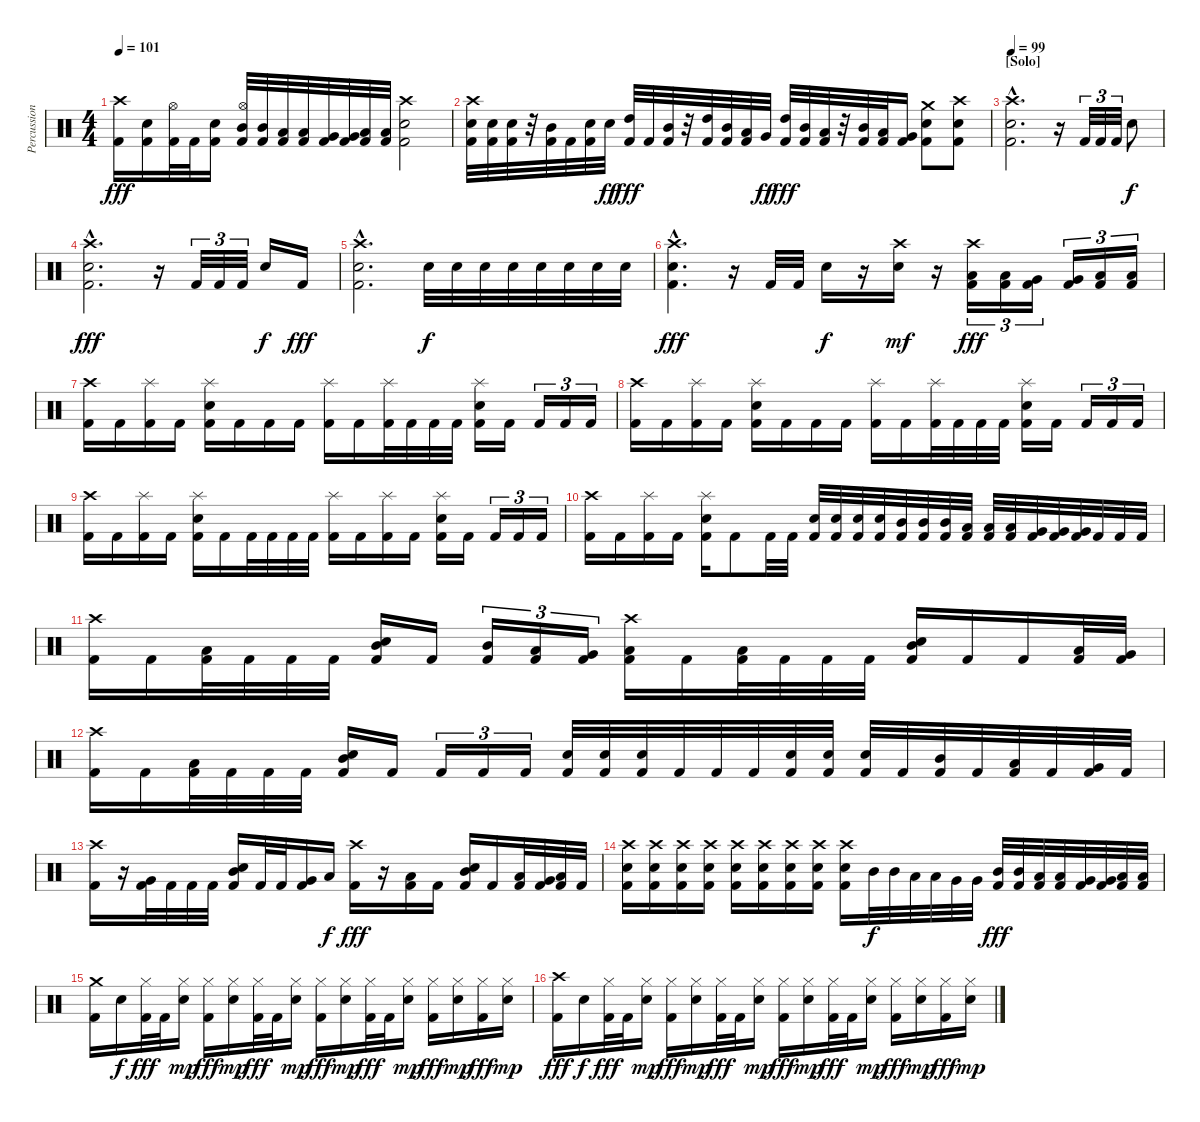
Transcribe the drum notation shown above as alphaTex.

\track ("Percussion" "Percussion") {instrument percussion}
\staff {score}
\articulation defaults
\ts (4 4)
\tempo 101
\clef neutral
\ks c
("Crash high (hit)" "Kick (hit) 2").16{dy fff} ("Snare (hit) 2" "Kick (hit) 2").16 ("Hi-Hat (open)" "Kick (hit) 2").32 "Kick (hit) 2".32 ("Snare (hit) 2" "Kick (hit) 2").16 ("Hi-Hat (open)" "Mid Tom (hit)" "Kick (hit) 2").32 ("Mid Tom (hit)" "Kick (hit) 2").32 ("Low Tom (hit)" "Kick (hit) 2").32 ("Low Tom (hit)" "Kick (hit) 2").32 ("Very Low Tom (hit)" "Kick (hit) 2").32 ("Very Low Tom (hit)" "Kick (hit) 2").32 ("Low Floor Tom (hit)" "Kick (hit) 2").32 ("Low Floor Tom (hit)" "Kick (hit) 2").32 ("Crash high (hit)" "Snare (hit) 2" "Kick (hit) 2").2 |
("Crash high (hit)" "Snare (hit) 2" "Kick (hit) 2").32 ("Snare (hit) 2" "Kick (hit) 2").32 ("Snare (hit) 2" "Kick (hit) 2").32 r.32 ("Mid Tom (hit)" "Kick (hit) 2").32 "Kick (hit) 2".32 ("Snare (hit) 2" "Kick (hit) 2").32 "Snare (hit) 2".32{dy ff} ("High Tom (hit)" "Kick (hit) 2").32{dy fff} "Kick (hit) 2".32 ("Mid Tom (hit)" "Kick (hit) 2").32 r.32 ("High Tom (hit)" "Kick (hit) 2").32 ("Mid Tom (hit)" "Kick (hit) 2").32 ("Low Tom (hit)" "Kick (hit) 2").32 "Very Low Tom (hit)".32{dy ff} ("High Tom (hit)" "Kick (hit) 2").32{dy fff} ("Mid Tom (hit)" "Kick (hit) 2").32 ("Low Tom (hit)" "Kick (hit) 2").32 r.32 ("Mid Tom (hit)" "Kick (hit) 2").32 ("Low Tom (hit)" "Kick (hit) 2").32 ("Very Low Tom (hit)" "Kick (hit) 2").16 ("Crash medium (hit)" "Snare (hit) 2" "Kick (hit) 2").8 ("Crash high (hit)" "Snare (hit) 2" "Kick (hit) 2").8 |
\section ("" "[Solo]")
\tempo 99
("Crash high (hit)"{hac} "Snare (hit) 2"{hac} "Kick (hit) 2"{hac}).2{d} r.16 "Kick (hit) 2".32{tu (3 2)} "Kick (hit) 2".32{tu (3 2)} "Kick (hit) 2".32{tu (3 2)} "Snare (hit) 2".8{dy f} |
("Crash high (hit)"{hac} "Snare (hit) 2"{hac} "Kick (hit) 2"{hac}).2{d dy fff} r.16 "Kick (hit) 2".32{tu (3 2)} "Kick (hit) 2".32{tu (3 2)} "Kick (hit) 2".32{tu (3 2)} "Snare (hit) 2".16{dy f} "Kick (hit) 2".16{dy fff} |
("Crash high (hit)"{hac} "Snare (hit) 2"{hac} "Kick (hit) 2"{hac}).2{d} "Snare (hit) 2".32{dy f} "Snare (hit) 2".32 "Snare (hit) 2".32 "Snare (hit) 2".32 "Snare (hit) 2".32 "Snare (hit) 2".32 "Snare (hit) 2".32 "Snare (hit) 2".32 |
("Crash high (hit)"{hac} "Snare (hit) 2"{hac} "Kick (hit) 2"{hac}).4{d dy fff} r.16 "Kick (hit) 2".32 "Kick (hit) 2".32 "Snare (hit) 2".16{dy f} r.16 ("Crash high (hit)" "Snare (hit) 2").16{dy mf} r.16 ("Crash high (hit)" "Low Tom (hit)" "Kick (hit) 2").16{tu (3 2) dy fff} ("Low Tom (hit)" "Kick (hit) 2").16{tu (3 2)} ("Very Low Tom (hit)" "Kick (hit) 2").16{tu (3 2)} ("Very Low Tom (hit)" "Kick (hit) 2").16{tu (3 2)} ("Low Floor Tom (hit)" "Kick (hit) 2").16{tu (3 2)} ("Low Floor Tom (hit)" "Kick (hit) 2").16{tu (3 2)} |
("Crash high (hit)" "Kick (hit) 2").16 "Kick (hit) 2".16 ("Splash (hit)" "Kick (hit) 2").16 "Kick (hit) 2".16 ("Splash (hit)" "Snare (hit) 2" "Kick (hit) 2").16 "Kick (hit) 2".16 "Kick (hit) 2".16 "Kick (hit) 2".16 ("Splash (hit)" "Kick (hit) 2").16 "Kick (hit) 2".16 ("Splash (hit)" "Kick (hit) 2").32 "Kick (hit) 2".32 "Kick (hit) 2".32 "Kick (hit) 2".32 ("Splash (hit)" "Snare (hit) 2" "Kick (hit) 2").16 "Kick (hit) 2".16 "Kick (hit) 2".16{tu (3 2)} "Kick (hit) 2".16{tu (3 2)} "Kick (hit) 2".16{tu (3 2)} |
("Crash high (hit)" "Kick (hit) 2").16 "Kick (hit) 2".16 ("Splash (hit)" "Kick (hit) 2").16 "Kick (hit) 2".16 ("Splash (hit)" "Snare (hit) 2" "Kick (hit) 2").16 "Kick (hit) 2".16 "Kick (hit) 2".16 "Kick (hit) 2".16 ("Splash (hit)" "Kick (hit) 2").16 "Kick (hit) 2".16 ("Splash (hit)" "Kick (hit) 2").32 "Kick (hit) 2".32 "Kick (hit) 2".32 "Kick (hit) 2".32 ("Splash (hit)" "Snare (hit) 2" "Kick (hit) 2").16 "Kick (hit) 2".16 "Kick (hit) 2".16{tu (3 2)} "Kick (hit) 2".16{tu (3 2)} "Kick (hit) 2".16{tu (3 2)} |
("Crash high (hit)" "Kick (hit) 2").16 "Kick (hit) 2".16 ("Splash (hit)" "Kick (hit) 2").16 "Kick (hit) 2".16 ("Splash (hit)" "Snare (hit) 2" "Kick (hit) 2").16 "Kick (hit) 2".16 "Kick (hit) 2".32 "Kick (hit) 2".32 "Kick (hit) 2".32 "Kick (hit) 2".32 ("Splash (hit)" "Kick (hit) 2").16 "Kick (hit) 2".16 ("Splash (hit)" "Kick (hit) 2").16 "Kick (hit) 2".16 ("Splash (hit)" "Snare (hit) 2" "Kick (hit) 2").16 "Kick (hit) 2".16 "Kick (hit) 2".16{tu (3 2)} "Kick (hit) 2".16{tu (3 2)} "Kick (hit) 2".16{tu (3 2)} |
("Crash high (hit)" "Kick (hit) 2").16 "Kick (hit) 2".16 ("Splash (hit)" "Kick (hit) 2").16 "Kick (hit) 2".16 ("Splash (hit)" "Snare (hit) 2" "Kick (hit) 2").16 "Kick (hit) 2".8 "Kick (hit) 2".32 "Kick (hit) 2".32 ("Snare (hit) 2" "Kick (hit) 2").32 ("Snare (hit) 2" "Kick (hit) 2").32 ("Snare (hit) 2" "Kick (hit) 2").32 ("Snare (hit) 2" "Kick (hit) 2").32 ("Mid Tom (hit)" "Kick (hit) 2").32 ("Mid Tom (hit)" "Kick (hit) 2").32 ("Mid Tom (hit)" "Kick (hit) 2").32 ("Low Tom (hit)" "Kick (hit) 2").32 ("Low Tom (hit)" "Kick (hit) 2").32 ("Low Tom (hit)" "Kick (hit) 2").32 ("Very Low Tom (hit)" "Kick (hit) 2").32 ("Very Low Tom (hit)" "Kick (hit) 2").32 ("Very Low Tom (hit)" "Kick (hit) 2").32 "Kick (hit) 2".32 "Kick (hit) 2".32 "Kick (hit) 2".32 |
\section ("" "")
("Crash high (hit)" "Kick (hit) 2").16 "Kick (hit) 2".16 ("Low Tom (hit)" "Kick (hit) 2").32 "Kick (hit) 2".32 "Kick (hit) 2".32 "Kick (hit) 2".32 ("Mid Tom (hit)" "Snare (hit) 2" "Kick (hit) 2").16 "Kick (hit) 2".16 ("Mid Tom (hit)" "Kick (hit) 2").16{tu (3 2)} ("Low Tom (hit)" "Kick (hit) 2").16{tu (3 2)} ("Very Low Tom (hit)" "Kick (hit) 2").16{tu (3 2)} ("Crash high (hit)" "Low Floor Tom (hit)" "Kick (hit) 2").16 "Kick (hit) 2".16 ("Low Tom (hit)" "Kick (hit) 2").32 "Kick (hit) 2".32 "Kick (hit) 2".32 "Kick (hit) 2".32 ("Mid Tom (hit)" "Snare (hit) 2" "Kick (hit) 2").16 "Kick (hit) 2".16 "Kick (hit) 2".16 ("Low Tom (hit)" "Kick (hit) 2").32 ("Very Low Tom (hit)" "Kick (hit) 2").32 |
("Crash high (hit)" "Kick (hit) 2").16 "Kick (hit) 2".16 ("Low Tom (hit)" "Kick (hit) 2").32 "Kick (hit) 2".32 "Kick (hit) 2".32 "Kick (hit) 2".32 ("Mid Tom (hit)" "Snare (hit) 2" "Kick (hit) 2").16 "Kick (hit) 2".16 "Kick (hit) 2".16{tu (3 2)} "Kick (hit) 2".16{tu (3 2)} "Kick (hit) 2".16{tu (3 2)} ("Snare (hit) 2" "Kick (hit) 2").32 ("Snare (hit) 2" "Kick (hit) 2").32 ("Snare (hit) 2" "Kick (hit) 2").32 "Kick (hit) 2".32 "Kick (hit) 2".32 "Kick (hit) 2".32 ("Snare (hit) 2" "Kick (hit) 2").32 ("Snare (hit) 2" "Kick (hit) 2").32 ("Snare (hit) 2" "Kick (hit) 2").32 "Kick (hit) 2".32 ("Mid Tom (hit)" "Kick (hit) 2").32 "Kick (hit) 2".32 ("Low Tom (hit)" "Kick (hit) 2").32 "Kick (hit) 2".32 ("Very Low Tom (hit)" "Kick (hit) 2").32 "Kick (hit) 2".32 |
("Crash high (hit)" "Kick (hit) 2").16 r.16 ("Very Low Tom (hit)" "Kick (hit) 2").32 "Kick (hit) 2".32 "Kick (hit) 2".32 "Kick (hit) 2".32 ("Mid Tom (hit)" "Snare (hit) 2" "Kick (hit) 2").16 "Kick (hit) 2".32 "Kick (hit) 2".32 ("Very Low Tom (hit)" "Kick (hit) 2").16 "Low Floor Tom (hit)".16{dy f} ("Crash high (hit)" "Kick (hit) 2").16{dy fff} r.16 ("Low Tom (hit)" "Kick (hit) 2").16 "Kick (hit) 2".16 ("Mid Tom (hit)" "Snare (hit) 2" "Kick (hit) 2").16 "Kick (hit) 2".16 ("Low Tom (hit)" "Kick (hit) 2").32 ("Very Low Tom (hit)" "Kick (hit) 2").32 ("Low Floor Tom (hit)" "Kick (hit) 2").32 "Kick (hit) 2".32 |
("Crash high (hit)" "Snare (hit) 2" "Kick (hit) 2").16 ("Crash high (hit)" "Snare (hit) 2" "Kick (hit) 2").16 ("Crash high (hit)" "Snare (hit) 2" "Kick (hit) 2").16 ("Crash high (hit)" "Snare (hit) 2" "Kick (hit) 2").16 ("Crash high (hit)" "Snare (hit) 2" "Kick (hit) 2").16 ("Crash high (hit)" "Snare (hit) 2" "Kick (hit) 2").16 ("Crash high (hit)" "Snare (hit) 2" "Kick (hit) 2").16 ("Crash high (hit)" "Snare (hit) 2" "Kick (hit) 2").16 ("Crash high (hit)" "Snare (hit) 2" "Kick (hit) 2").16 "Mid Tom (hit)".32{dy f} "Mid Tom (hit)".32 "Low Tom (hit)".32 "Low Tom (hit)".32 "Very Low Tom (hit)".32 "Very Low Tom (hit)".32 ("Mid Tom (hit)" "Kick (hit) 2").32{dy fff} ("Mid Tom (hit)" "Kick (hit) 2").32 ("Low Tom (hit)" "Kick (hit) 2").32 ("Low Tom (hit)" "Kick (hit) 2").32 ("Very Low Tom (hit)" "Kick (hit) 2").32 ("Very Low Tom (hit)" "Kick (hit) 2").32 ("Low Floor Tom (hit)" "Kick (hit) 2").32 ("Low Floor Tom (hit)" "Kick (hit) 2").32 |
\section ("" "")
("Crash medium (hit)" "Kick (hit) 2").16 "Snare (hit) 2".16{dy f} ("Hi-Hat (closed)" "Kick (hit) 2").32{dy fff} "Kick (hit) 2".32 ("Hi-Hat (closed)" "Snare (hit) 2").16{dy mp} ("Hi-Hat (closed)" "Kick (hit) 2").16{dy fff} ("Hi-Hat (closed)" "Snare (hit) 2").16{dy mp} ("Hi-Hat (closed)" "Kick (hit) 2").32{dy fff} "Kick (hit) 2".32 ("Hi-Hat (closed)" "Snare (hit) 2").16{dy mp} ("Hi-Hat (closed)" "Kick (hit) 2").16{dy fff} ("Hi-Hat (closed)" "Snare (hit) 2").16{dy mp} ("Hi-Hat (closed)" "Kick (hit) 2").32{dy fff} "Kick (hit) 2".32 ("Hi-Hat (closed)" "Snare (hit) 2").16{dy mp} ("Hi-Hat (closed)" "Kick (hit) 2").16{dy fff} ("Hi-Hat (closed)" "Snare (hit) 2").16{dy mp} ("Hi-Hat (closed)" "Kick (hit) 2").16{dy fff} ("Hi-Hat (closed)" "Snare (hit) 2").16{dy mp} |
("Crash high (hit)" "Kick (hit) 2").16{dy fff} "Snare (hit) 2".16{dy f} ("Hi-Hat (closed)" "Kick (hit) 2").32{dy fff} "Kick (hit) 2".32 ("Hi-Hat (closed)" "Snare (hit) 2").16{dy mp} ("Hi-Hat (closed)" "Kick (hit) 2").16{dy fff} ("Hi-Hat (closed)" "Snare (hit) 2").16{dy mp} ("Hi-Hat (closed)" "Kick (hit) 2").32{dy fff} "Kick (hit) 2".32 ("Hi-Hat (closed)" "Snare (hit) 2").16{dy mp} ("Hi-Hat (closed)" "Kick (hit) 2").16{dy fff} ("Hi-Hat (closed)" "Snare (hit) 2").16{dy mp} ("Hi-Hat (closed)" "Kick (hit) 2").32{dy fff} "Kick (hit) 2".32 ("Hi-Hat (closed)" "Snare (hit) 2").16{dy mp} ("Hi-Hat (closed)" "Kick (hit) 2").16{dy fff} ("Hi-Hat (closed)" "Snare (hit) 2").16{dy mp} ("Hi-Hat (closed)" "Kick (hit) 2").16{dy fff} ("Hi-Hat (closed)" "Snare (hit) 2").16{dy mp}
